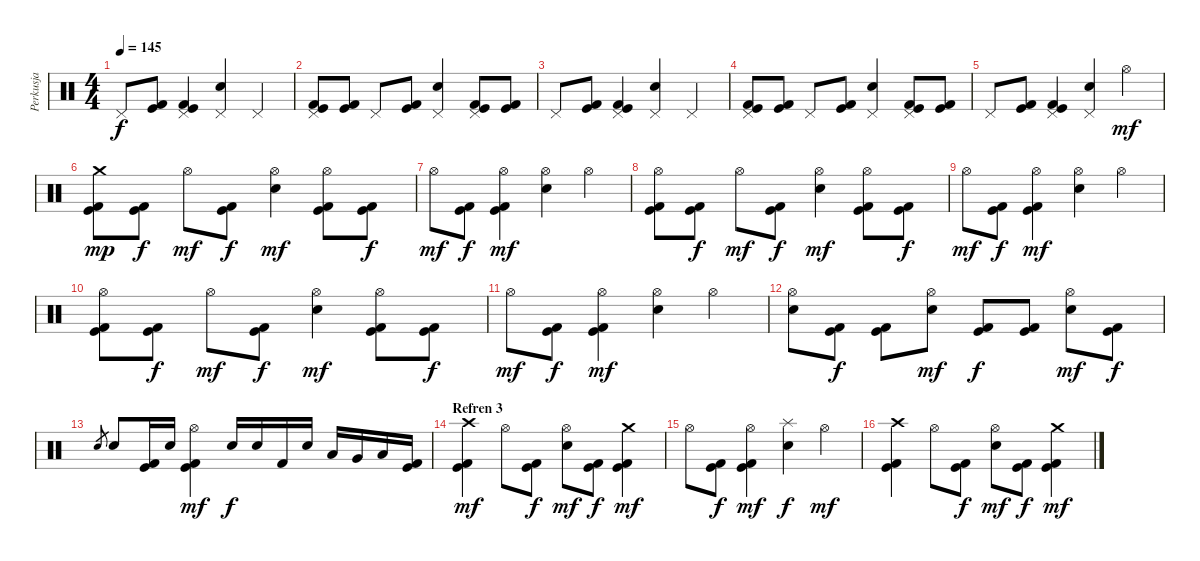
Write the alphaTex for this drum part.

\track ("Perkusja" "Perkusja") {instrument percussion}
\staff {score}
\articulation defaults
\ts (4 4)
\tempo 145
\clef neutral
\ks c "Pedal Hi-Hat (hit)".8{dy f}
("Kick (hit) 2" "Kick (hit)").8 ("Kick (hit) 2" "Kick (hit)" "Pedal Hi-Hat (hit)").4 ("Snare (hit) 2" "Pedal Hi-Hat (hit)").4 "Pedal Hi-Hat (hit)".4 |
("Kick (hit) 2" "Kick (hit)" "Pedal Hi-Hat (hit)").8 ("Kick (hit) 2" "Kick (hit)").8 "Pedal Hi-Hat (hit)".8 ("Kick (hit) 2" "Kick (hit)").8 ("Snare (hit) 2" "Pedal Hi-Hat (hit)").4 ("Kick (hit) 2" "Kick (hit)" "Pedal Hi-Hat (hit)").8 ("Kick (hit) 2" "Kick (hit)").8 |
"Pedal Hi-Hat (hit)".8 ("Kick (hit) 2" "Kick (hit)").8 ("Kick (hit) 2" "Kick (hit)" "Pedal Hi-Hat (hit)").4 ("Snare (hit) 2" "Pedal Hi-Hat (hit)").4 "Pedal Hi-Hat (hit)".4 |
("Kick (hit) 2" "Kick (hit)" "Pedal Hi-Hat (hit)").8 ("Kick (hit) 2" "Kick (hit)").8 "Pedal Hi-Hat (hit)".8 ("Kick (hit) 2" "Kick (hit)").8 ("Snare (hit) 2" "Pedal Hi-Hat (hit)").4 ("Kick (hit) 2" "Kick (hit)" "Pedal Hi-Hat (hit)").8 ("Kick (hit) 2" "Kick (hit)").8 |
"Pedal Hi-Hat (hit)".8 ("Kick (hit) 2" "Kick (hit)").8 ("Kick (hit) 2" "Kick (hit)" "Pedal Hi-Hat (hit)").4 ("Snare (hit) 2" "Pedal Hi-Hat (hit)").4 "Hi-Hat (open)".4{dy mf} |
("Kick (hit) 2" "Kick (hit)" "Crash medium (hit)").8{dy mp} ("Kick (hit) 2" "Kick (hit)").8{dy f} "Hi-Hat (open)".8{dy mf} ("Kick (hit) 2" "Kick (hit)").8{dy f} ("Snare (hit) 2" "Hi-Hat (open)").4{dy mf} ("Kick (hit) 2" "Kick (hit)" "Hi-Hat (open)").8 ("Kick (hit) 2" "Kick (hit)").8{dy f} |
"Hi-Hat (open)".8{dy mf} ("Kick (hit) 2" "Kick (hit)").8{dy f} ("Kick (hit) 2" "Kick (hit)" "Hi-Hat (open)").4{dy mf} ("Snare (hit) 2" "Hi-Hat (open)").4 "Hi-Hat (open)".4 |
("Kick (hit) 2" "Kick (hit)" "Hi-Hat (open)").8 ("Kick (hit) 2" "Kick (hit)").8{dy f} "Hi-Hat (open)".8{dy mf} ("Kick (hit) 2" "Kick (hit)").8{dy f} ("Snare (hit) 2" "Hi-Hat (open)").4{dy mf} ("Kick (hit) 2" "Kick (hit)" "Hi-Hat (open)").8 ("Kick (hit) 2" "Kick (hit)").8{dy f} |
"Hi-Hat (open)".8{dy mf} ("Kick (hit) 2" "Kick (hit)").8{dy f} ("Kick (hit) 2" "Kick (hit)" "Hi-Hat (open)").4{dy mf} ("Snare (hit) 2" "Hi-Hat (open)").4 "Hi-Hat (open)".4 |
("Kick (hit) 2" "Kick (hit)" "Hi-Hat (open)").8 ("Kick (hit) 2" "Kick (hit)").8{dy f} "Hi-Hat (open)".8{dy mf} ("Kick (hit) 2" "Kick (hit)").8{dy f} ("Snare (hit) 2" "Hi-Hat (open)").4{dy mf} ("Kick (hit) 2" "Kick (hit)" "Hi-Hat (open)").8 ("Kick (hit) 2" "Kick (hit)").8{dy f} |
"Hi-Hat (open)".8{dy mf} ("Kick (hit) 2" "Kick (hit)").8{dy f} ("Kick (hit) 2" "Kick (hit)" "Hi-Hat (open)").4{dy mf} ("Snare (hit) 2" "Hi-Hat (open)").4 "Hi-Hat (open)".4 |
("Snare (hit) 2" "Hi-Hat (open)").8 ("Kick (hit) 2" "Kick (hit)").8{dy f} ("Kick (hit)" "Kick (hit) 2").8 ("Snare (hit) 2" "Hi-Hat (open)").8{dy mf} ("Kick (hit) 2" "Kick (hit)").8{dy f} ("Kick (hit) 2" "Kick (hit)").8 ("Snare (hit) 2" "Hi-Hat (open)").8{dy mf} ("Kick (hit) 2" "Kick (hit)").8{dy f} |
"Snare (hit) 2".8{gr} "Snare (hit) 2".8 ("Kick (hit) 2" "Kick (hit)").16 "Snare (hit) 2".16 ("Kick (hit) 2" "Kick (hit)" "Hi-Hat (open)").4{dy mf} "Snare (hit) 2".16{dy f} "Snare (hit) 2".16 "Kick (hit) 2".16 "Snare (hit) 2".16 "Low Tom (hit)".16 "Very Low Tom (hit)".16 "Low Floor Tom (hit)".16 ("Kick (hit) 2" "Kick (hit)").16 |
\section ("" "Refren 3")
("Kick (hit) 2" "Kick (hit)" "Crash high (hit)").4{dy mf} "Hi-Hat (open)".8 ("Kick (hit) 2" "Kick (hit)").8{dy f} ("Snare (hit) 2" "Hi-Hat (open)").8{dy mf} ("Kick (hit) 2" "Kick (hit)").8{dy f} ("Kick (hit)" "Kick (hit) 2" "Crash medium (hit)").4{dy mf} |
"Hi-Hat (open)".8 ("Kick (hit) 2" "Kick (hit)").8{dy f} ("Kick (hit) 2" "Kick (hit)" "Hi-Hat (open)").4{dy mf} ("Snare (hit) 2" "Splash (hit)").4{dy f} "Hi-Hat (open)".4{dy mf} |
("Kick (hit) 2" "Kick (hit)" "Crash high (hit)").4 "Hi-Hat (open)".8 ("Kick (hit) 2" "Kick (hit)").8{dy f} ("Snare (hit) 2" "Hi-Hat (open)").8{dy mf} ("Kick (hit) 2" "Kick (hit)").8{dy f} ("Kick (hit)" "Kick (hit) 2" "Crash medium (hit)").4{dy mf}
